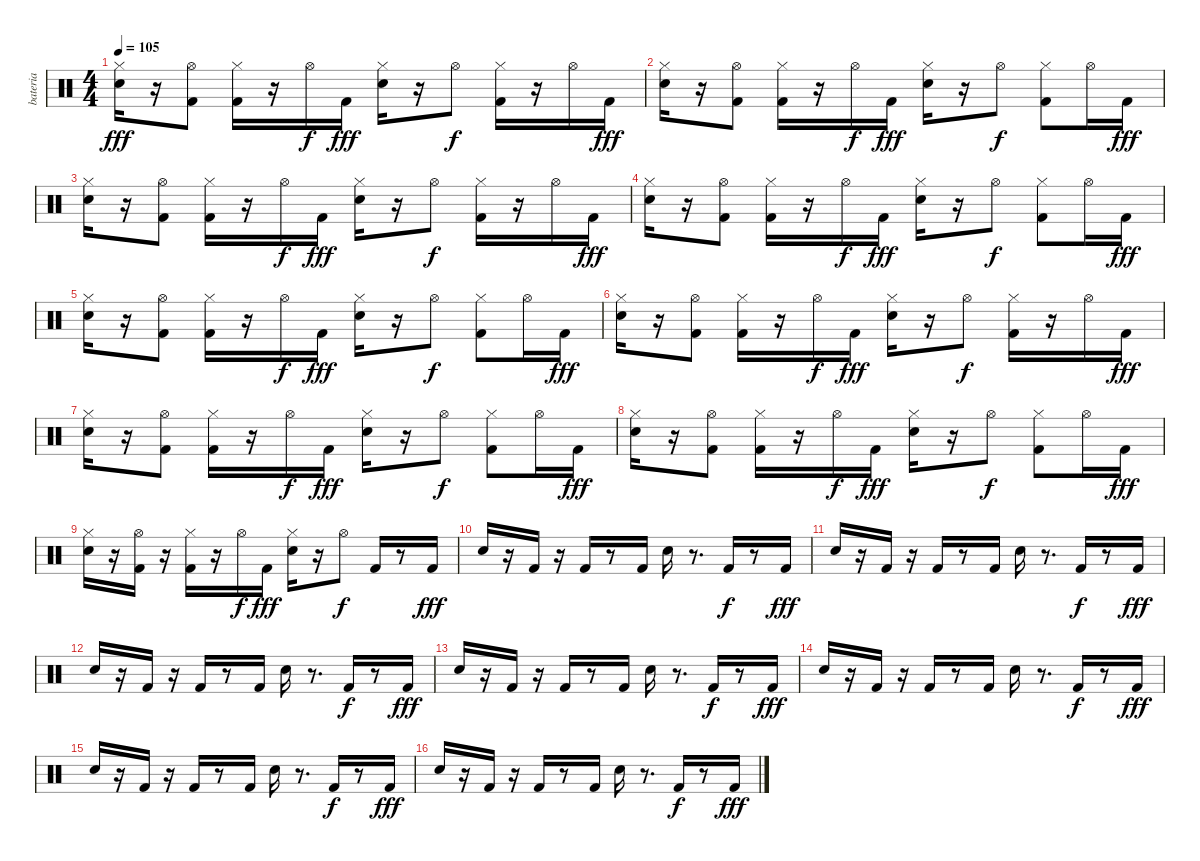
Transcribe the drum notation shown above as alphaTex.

\track ("bateria" "bateria") {instrument percussion}
\staff {score}
\articulation defaults
\ts (4 4)
\tempo 105
\clef neutral
\ks c
("Snare (hit) 2" "Hi-Hat (closed)").16{dy fff} r.16 ("Kick (hit) 2" "Hi-Hat (open)").8 ("Kick (hit) 2" "Hi-Hat (closed)").16 r.16 "Hi-Hat (open)".16{dy f} "Kick (hit) 2".16{dy fff} ("Snare (hit) 2" "Hi-Hat (closed)").16 r.16 "Hi-Hat (open)".8{dy f} ("Hi-Hat (closed)" "Kick (hit) 2").16 r.16 "Hi-Hat (open)".16 "Kick (hit) 2".16{dy fff} |
("Snare (hit) 2" "Hi-Hat (closed)").16 r.16 ("Kick (hit) 2" "Hi-Hat (open)").8 ("Kick (hit) 2" "Hi-Hat (closed)").16 r.16 "Hi-Hat (open)".16{dy f} "Kick (hit) 2".16{dy fff} ("Snare (hit) 2" "Hi-Hat (closed)").16 r.16 "Hi-Hat (open)".8{dy f} ("Hi-Hat (closed)" "Kick (hit) 2").8 "Hi-Hat (open)".16 "Kick (hit) 2".16{dy fff} |
("Snare (hit) 2" "Hi-Hat (closed)").16 r.16 ("Kick (hit) 2" "Hi-Hat (open)").8 ("Kick (hit) 2" "Hi-Hat (closed)").16 r.16 "Hi-Hat (open)".16{dy f} "Kick (hit) 2".16{dy fff} ("Snare (hit) 2" "Hi-Hat (closed)").16 r.16 "Hi-Hat (open)".8{dy f} ("Hi-Hat (closed)" "Kick (hit) 2").16 r.16 "Hi-Hat (open)".16 "Kick (hit) 2".16{dy fff} |
("Snare (hit) 2" "Hi-Hat (closed)").16 r.16 ("Kick (hit) 2" "Hi-Hat (open)").8 ("Kick (hit) 2" "Hi-Hat (closed)").16 r.16 "Hi-Hat (open)".16{dy f} "Kick (hit) 2".16{dy fff} ("Snare (hit) 2" "Hi-Hat (closed)").16 r.16 "Hi-Hat (open)".8{dy f} ("Hi-Hat (closed)" "Kick (hit) 2").8 "Hi-Hat (open)".16 "Kick (hit) 2".16{dy fff} |
("Snare (hit) 2" "Hi-Hat (closed)").16 r.16 ("Kick (hit) 2" "Hi-Hat (open)").8 ("Kick (hit) 2" "Hi-Hat (closed)").16 r.16 "Hi-Hat (open)".16{dy f} "Kick (hit) 2".16{dy fff} ("Snare (hit) 2" "Hi-Hat (closed)").16 r.16 "Hi-Hat (open)".8{dy f} ("Hi-Hat (closed)" "Kick (hit) 2").8 "Hi-Hat (open)".16 "Kick (hit) 2".16{dy fff} |
("Snare (hit) 2" "Hi-Hat (closed)").16 r.16 ("Kick (hit) 2" "Hi-Hat (open)").8 ("Kick (hit) 2" "Hi-Hat (closed)").16 r.16 "Hi-Hat (open)".16{dy f} "Kick (hit) 2".16{dy fff} ("Snare (hit) 2" "Hi-Hat (closed)").16 r.16 "Hi-Hat (open)".8{dy f} ("Hi-Hat (closed)" "Kick (hit) 2").16 r.16 "Hi-Hat (open)".16 "Kick (hit) 2".16{dy fff} |
("Snare (hit) 2" "Hi-Hat (closed)").16 r.16 ("Kick (hit) 2" "Hi-Hat (open)").8 ("Kick (hit) 2" "Hi-Hat (closed)").16 r.16 "Hi-Hat (open)".16{dy f} "Kick (hit) 2".16{dy fff} ("Snare (hit) 2" "Hi-Hat (closed)").16 r.16 "Hi-Hat (open)".8{dy f} ("Hi-Hat (closed)" "Kick (hit) 2").8 "Hi-Hat (open)".16 "Kick (hit) 2".16{dy fff} |
("Snare (hit) 2" "Hi-Hat (closed)").16 r.16 ("Kick (hit) 2" "Hi-Hat (open)").8 ("Kick (hit) 2" "Hi-Hat (closed)").16 r.16 "Hi-Hat (open)".16{dy f} "Kick (hit) 2".16{dy fff} ("Snare (hit) 2" "Hi-Hat (closed)").16 r.16 "Hi-Hat (open)".8{dy f} ("Hi-Hat (closed)" "Kick (hit) 2").8 "Hi-Hat (open)".16 "Kick (hit) 2".16{dy fff} |
("Snare (hit) 2" "Hi-Hat (closed)").16 r.16 ("Kick (hit) 2" "Hi-Hat (open)").16 r.16 ("Kick (hit) 2" "Hi-Hat (closed)").16 r.16 "Hi-Hat (open)".16{dy f} "Kick (hit) 2".16{dy fff} ("Snare (hit) 2" "Hi-Hat (closed)").16 r.16 "Hi-Hat (open)".8{dy f} "Kick (hit) 2".16 r.8 "Kick (hit) 2".16{dy fff} |
"Snare (hit) 2".16 r.16 "Kick (hit) 2".16 r.16 "Kick (hit) 2".16 r.8 "Kick (hit) 2".16 "Snare (hit) 2".16 r.8{d} "Kick (hit) 2".16{dy f} r.8 "Kick (hit) 2".16{dy fff} |
"Snare (hit) 2".16 r.16 "Kick (hit) 2".16 r.16 "Kick (hit) 2".16 r.8 "Kick (hit) 2".16 "Snare (hit) 2".16 r.8{d} "Kick (hit) 2".16{dy f} r.8 "Kick (hit) 2".16{dy fff} |
"Snare (hit) 2".16 r.16 "Kick (hit) 2".16 r.16 "Kick (hit) 2".16 r.8 "Kick (hit) 2".16 "Snare (hit) 2".16 r.8{d} "Kick (hit) 2".16{dy f} r.8 "Kick (hit) 2".16{dy fff} |
"Snare (hit) 2".16 r.16 "Kick (hit) 2".16 r.16 "Kick (hit) 2".16 r.8 "Kick (hit) 2".16 "Snare (hit) 2".16 r.8{d} "Kick (hit) 2".16{dy f} r.8 "Kick (hit) 2".16{dy fff} |
"Snare (hit) 2".16 r.16 "Kick (hit) 2".16 r.16 "Kick (hit) 2".16 r.8 "Kick (hit) 2".16 "Snare (hit) 2".16 r.8{d} "Kick (hit) 2".16{dy f} r.8 "Kick (hit) 2".16{dy fff} |
"Snare (hit) 2".16 r.16 "Kick (hit) 2".16 r.16 "Kick (hit) 2".16 r.8 "Kick (hit) 2".16 "Snare (hit) 2".16 r.8{d} "Kick (hit) 2".16{dy f} r.8 "Kick (hit) 2".16{dy fff} |
"Snare (hit) 2".16 r.16 "Kick (hit) 2".16 r.16 "Kick (hit) 2".16 r.8 "Kick (hit) 2".16 "Snare (hit) 2".16 r.8{d} "Kick (hit) 2".16{dy f} r.8 "Kick (hit) 2".16{dy fff}
